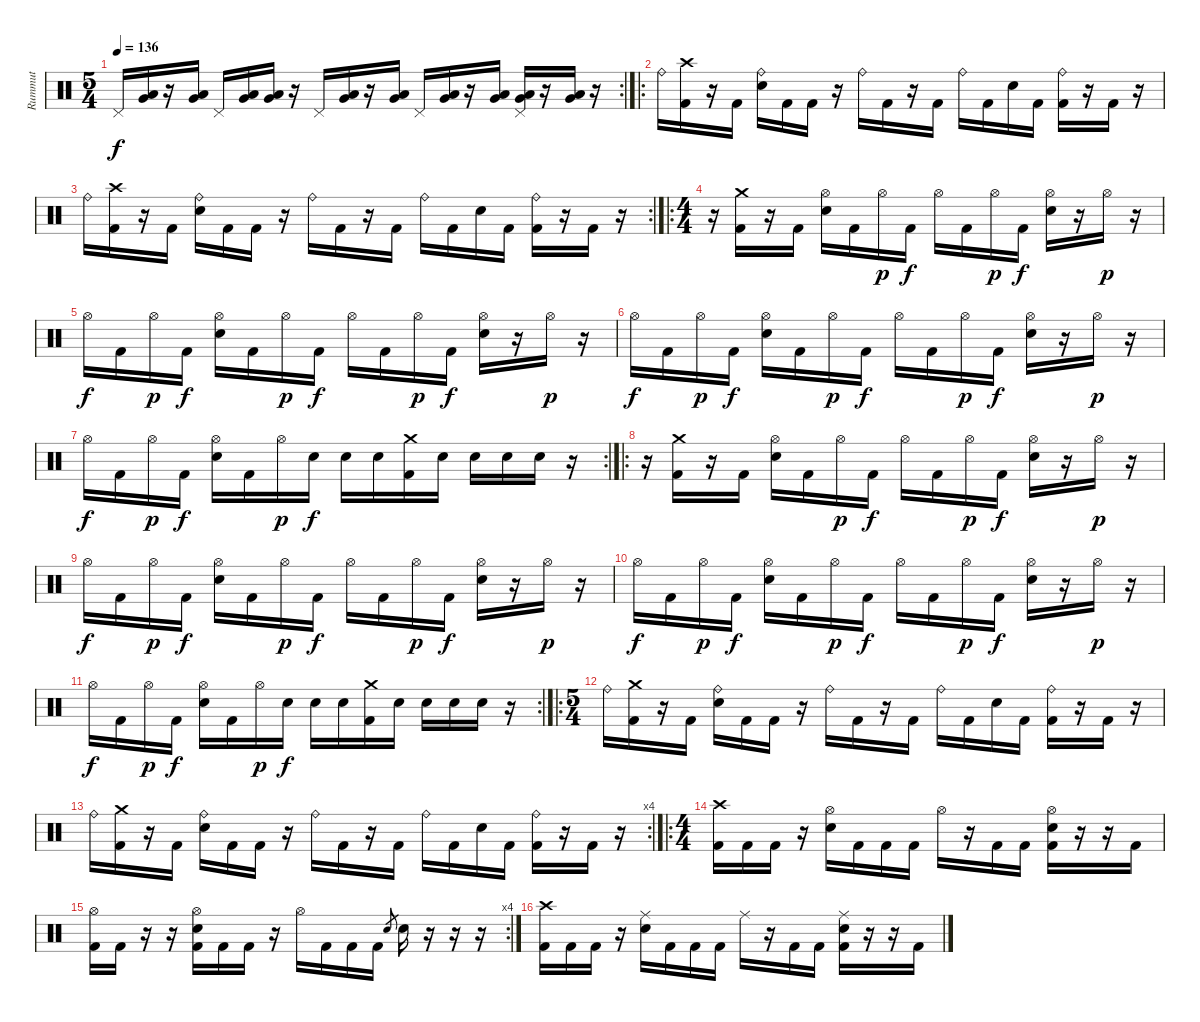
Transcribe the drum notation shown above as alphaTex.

\track ("Rummut" "Rummut") {instrument percussion}
\staff {score}
\articulation defaults
\rc 2
\ts (5 4)
\tempo 136
\clef neutral
\ks c "Pedal Hi-Hat (hit)".16{dy f}
("Very Low Tom (hit)" "Low Floor Tom (hit)").16 r.16 ("Very Low Tom (hit)" "Low Floor Tom (hit)").16 "Pedal Hi-Hat (hit)".16 ("Very Low Tom (hit)" "Low Floor Tom (hit)").16 ("Very Low Tom (hit)" "Low Floor Tom (hit)").16 r.16 "Pedal Hi-Hat (hit)".16 ("Very Low Tom (hit)" "Low Floor Tom (hit)").16 r.16 ("Very Low Tom (hit)" "Low Floor Tom (hit)").16 "Pedal Hi-Hat (hit)".16 ("Very Low Tom (hit)" "Low Floor Tom (hit)").16 r.16 ("Very Low Tom (hit)" "Low Floor Tom (hit)").16 ("Pedal Hi-Hat (hit)" "Very Low Tom (hit)" "Low Floor Tom (hit)").16 r.16 ("Very Low Tom (hit)" "Low Floor Tom (hit)").16 r.16 |
\ro "Ride (bell)".16
("Crash high (hit)" "Kick (hit) 2").16 r.16 "Kick (hit) 2".16 ("Ride (bell)" "Electric Snare (hit)").16 "Kick (hit) 2".16 "Kick (hit) 2".16 r.16 "Ride (bell)".16 "Kick (hit) 2".16 r.16 "Kick (hit) 2".16 "Ride (bell)".16 "Kick (hit) 2".16 "Electric Snare (hit)".16 "Kick (hit) 2".16 ("Ride (bell)" "Kick (hit) 2").16 r.16 "Kick (hit) 2".16 r.16 |
\rc 2 "Ride (bell)".16
("Crash high (hit)" "Kick (hit) 2").16 r.16 "Kick (hit) 2".16 ("Ride (bell)" "Electric Snare (hit)").16 "Kick (hit) 2".16 "Kick (hit) 2".16 r.16 "Ride (bell)".16 "Kick (hit) 2".16 r.16 "Kick (hit) 2".16 "Ride (bell)".16 "Kick (hit) 2".16 "Electric Snare (hit)".16 "Kick (hit) 2".16 ("Ride (bell)" "Kick (hit) 2").16 r.16 "Kick (hit) 2".16 r.16 |
\ro
\ts (4 4)
r.16 ("Crash medium (hit)" "Kick (hit) 2").16 r.16 "Kick (hit) 2".16 ("Hi-Hat (open)" "Electric Snare (hit)").16 "Kick (hit) 2".16 "Hi-Hat (open)".16{dy p} "Kick (hit) 2".16{dy f} "Hi-Hat (open)".16 "Kick (hit) 2".16 "Hi-Hat (open)".16{dy p} "Kick (hit) 2".16{dy f} ("Hi-Hat (open)" "Electric Snare (hit)").16 r.16 "Hi-Hat (open)".16{dy p} r.16 |
"Hi-Hat (open)".16{dy f} "Kick (hit) 2".16 "Hi-Hat (open)".16{dy p} "Kick (hit) 2".16{dy f} ("Hi-Hat (open)" "Electric Snare (hit)").16 "Kick (hit) 2".16 "Hi-Hat (open)".16{dy p} "Kick (hit) 2".16{dy f} "Hi-Hat (open)".16 "Kick (hit) 2".16 "Hi-Hat (open)".16{dy p} "Kick (hit) 2".16{dy f} ("Hi-Hat (open)" "Electric Snare (hit)").16 r.16 "Hi-Hat (open)".16{dy p} r.16 |
"Hi-Hat (open)".16{dy f} "Kick (hit) 2".16 "Hi-Hat (open)".16{dy p} "Kick (hit) 2".16{dy f} ("Hi-Hat (open)" "Electric Snare (hit)").16 "Kick (hit) 2".16 "Hi-Hat (open)".16{dy p} "Kick (hit) 2".16{dy f} "Hi-Hat (open)".16 "Kick (hit) 2".16 "Hi-Hat (open)".16{dy p} "Kick (hit) 2".16{dy f} ("Hi-Hat (open)" "Electric Snare (hit)").16 r.16 "Hi-Hat (open)".16{dy p} r.16 |
\rc 2 "Hi-Hat (open)".16{dy f} "Kick (hit) 2".16 "Hi-Hat (open)".16{dy p} "Kick (hit) 2".16{dy f}
("Hi-Hat (open)" "Electric Snare (hit)").16 "Kick (hit) 2".16 "Hi-Hat (open)".16{dy p} "Electric Snare (hit)".16{dy f} "Electric Snare (hit)".16 "Electric Snare (hit)".16 ("Crash medium (hit)" "Kick (hit) 2").16 "Electric Snare (hit)".16 "Electric Snare (hit)".16 "Electric Snare (hit)".16 "Electric Snare (hit)".16 r.16 |
\ro
r.16 ("Crash medium (hit)" "Kick (hit) 2").16 r.16 "Kick (hit) 2".16 ("Hi-Hat (open)" "Electric Snare (hit)").16 "Kick (hit) 2".16 "Hi-Hat (open)".16{dy p} "Kick (hit) 2".16{dy f} "Hi-Hat (open)".16 "Kick (hit) 2".16 "Hi-Hat (open)".16{dy p} "Kick (hit) 2".16{dy f} ("Hi-Hat (open)" "Electric Snare (hit)").16 r.16 "Hi-Hat (open)".16{dy p} r.16 |
"Hi-Hat (open)".16{dy f} "Kick (hit) 2".16 "Hi-Hat (open)".16{dy p} "Kick (hit) 2".16{dy f} ("Hi-Hat (open)" "Electric Snare (hit)").16 "Kick (hit) 2".16 "Hi-Hat (open)".16{dy p} "Kick (hit) 2".16{dy f} "Hi-Hat (open)".16 "Kick (hit) 2".16 "Hi-Hat (open)".16{dy p} "Kick (hit) 2".16{dy f} ("Hi-Hat (open)" "Electric Snare (hit)").16 r.16 "Hi-Hat (open)".16{dy p} r.16 |
"Hi-Hat (open)".16{dy f} "Kick (hit) 2".16 "Hi-Hat (open)".16{dy p} "Kick (hit) 2".16{dy f} ("Hi-Hat (open)" "Electric Snare (hit)").16 "Kick (hit) 2".16 "Hi-Hat (open)".16{dy p} "Kick (hit) 2".16{dy f} "Hi-Hat (open)".16 "Kick (hit) 2".16 "Hi-Hat (open)".16{dy p} "Kick (hit) 2".16{dy f} ("Hi-Hat (open)" "Electric Snare (hit)").16 r.16 "Hi-Hat (open)".16{dy p} r.16 |
\rc 2 "Hi-Hat (open)".16{dy f} "Kick (hit) 2".16 "Hi-Hat (open)".16{dy p} "Kick (hit) 2".16{dy f}
("Hi-Hat (open)" "Electric Snare (hit)").16 "Kick (hit) 2".16 "Hi-Hat (open)".16{dy p} "Electric Snare (hit)".16{dy f} "Electric Snare (hit)".16 "Electric Snare (hit)".16 ("Crash medium (hit)" "Kick (hit) 2").16 "Electric Snare (hit)".16 "Electric Snare (hit)".16 "Electric Snare (hit)".16 "Electric Snare (hit)".16 r.16 |
\ro
\ts (5 4)
"Ride (bell)".16 ("Crash medium (hit)" "Kick (hit) 2").16 r.16 "Kick (hit) 2".16 ("Ride (bell)" "Electric Snare (hit)").16 "Kick (hit) 2".16 "Kick (hit) 2".16 r.16 "Ride (bell)".16 "Kick (hit) 2".16 r.16 "Kick (hit) 2".16 "Ride (bell)".16 "Kick (hit) 2".16 "Electric Snare (hit)".16 "Kick (hit) 2".16 ("Ride (bell)" "Kick (hit) 2").16 r.16 "Kick (hit) 2".16 r.16 |
\rc 4 "Ride (bell)".16
("Crash medium (hit)" "Kick (hit) 2").16 r.16 "Kick (hit) 2".16 ("Ride (bell)" "Electric Snare (hit)").16 "Kick (hit) 2".16 "Kick (hit) 2".16 r.16 "Ride (bell)".16 "Kick (hit) 2".16 r.16 "Kick (hit) 2".16 "Ride (bell)".16 "Kick (hit) 2".16 "Electric Snare (hit)".16 "Kick (hit) 2".16 ("Ride (bell)" "Kick (hit) 2").16 r.16 "Kick (hit) 2".16 r.16 |
\ro
\ts (4 4)
("Crash high (hit)" "Kick (hit) 2").16 "Kick (hit) 2".16 "Kick (hit) 2".16 r.16 ("Hi-Hat (open)" "Electric Snare (hit)").16 "Kick (hit) 2".16 "Kick (hit) 2".16 "Kick (hit) 2".16 "Hi-Hat (open)".16 r.16 "Kick (hit) 2".16 "Kick (hit) 2".16 ("Hi-Hat (open)" "Electric Snare (hit)" "Kick (hit) 2").16 r.16 r.16 "Kick (hit) 2".16 |
\rc 4
("Hi-Hat (open)" "Kick (hit) 2").16 "Kick (hit) 2".16 r.16 r.16 ("Hi-Hat (open)" "Electric Snare (hit)" "Kick (hit) 2").16 "Kick (hit) 2".16 "Kick (hit) 2".16 r.16 "Hi-Hat (open)".16 "Kick (hit) 2".16 "Kick (hit) 2".16 "Kick (hit) 2".16 "Electric Snare (hit)".8{gr} "Electric Snare (hit)".16 r.16 r.16 r.16 |
("Crash high (hit)" "Kick (hit) 2").16 "Kick (hit) 2".16 "Kick (hit) 2".16 r.16 ("Ride (middle)" "Electric Snare (hit)").16 "Kick (hit) 2".16 "Kick (hit) 2".16 "Kick (hit) 2".16 "Ride (middle)".16 r.16 "Kick (hit) 2".16 "Kick (hit) 2".16 ("Ride (middle)" "Electric Snare (hit)" "Kick (hit) 2").16 r.16 r.16 "Kick (hit) 2".16
